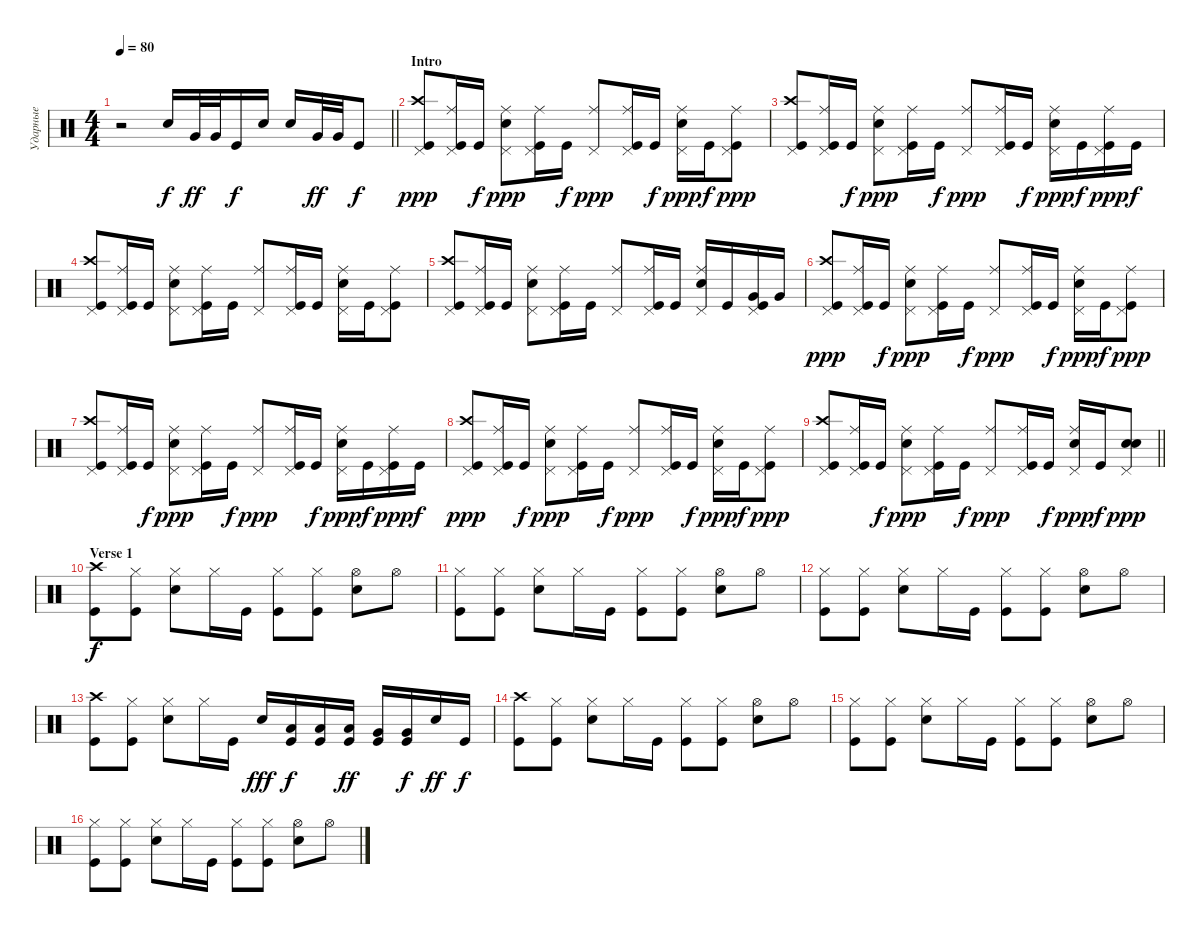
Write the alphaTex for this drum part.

\track ("Ударные" "Ударные") {instrument percussion}
\staff {score}
\articulation defaults
\ts (4 4)
\tempo 80
\clef neutral
\barLineRight lightlight
\ks aminor
r.2{dy f} "Snare (hit) 2".16{bd 120} "Very Low Tom (hit)".32{dy ff} "Very Low Tom (hit)".32 "Kick (hit)".16{dy f} "Snare (hit) 2".16 "Snare (hit) 2".16 "Very Low Tom (hit)".32{dy ff} "Very Low Tom (hit)".32 "Kick (hit)".8{dy f} |
\section ("" "Intro")
("Kick (hit)" "Crash high (hit)" "Pedal Hi-Hat (hit)").8{dy ppp} ("Kick (hit)" "Ride (middle)" "Pedal Hi-Hat (hit)").16 "Kick (hit)".16{dy f} ("Snare (hit) 2" "Ride (middle)" "Pedal Hi-Hat (hit)").8{dy ppp} ("Kick (hit)" "Ride (middle)" "Pedal Hi-Hat (hit)").16 "Kick (hit)".16{dy f} ("Ride (middle)" "Pedal Hi-Hat (hit)").8{dy ppp} ("Kick (hit)" "Ride (middle)" "Pedal Hi-Hat (hit)").16 "Kick (hit)".16{dy f} ("Snare (hit) 2" "Ride (middle)" "Pedal Hi-Hat (hit)").16{dy ppp} "Kick (hit)".16{dy f} ("Kick (hit)" "Ride (middle)" "Pedal Hi-Hat (hit)").8{dy ppp} |
("Kick (hit)" "Crash high (hit)" "Pedal Hi-Hat (hit)").8 ("Kick (hit)" "Ride (middle)" "Pedal Hi-Hat (hit)").16 "Kick (hit)".16{dy f} ("Snare (hit) 2" "Ride (middle)" "Pedal Hi-Hat (hit)").8{dy ppp} ("Kick (hit)" "Ride (middle)" "Pedal Hi-Hat (hit)").16 "Kick (hit)".16{dy f} ("Ride (middle)" "Pedal Hi-Hat (hit)").8{dy ppp} ("Kick (hit)" "Ride (middle)" "Pedal Hi-Hat (hit)").16 "Kick (hit)".16{dy f} ("Snare (hit) 2" "Ride (middle)" "Pedal Hi-Hat (hit)").16{dy ppp} "Kick (hit)".16{dy f} ("Kick (hit)" "Ride (middle)" "Pedal Hi-Hat (hit)").16{dy ppp} "Kick (hit)".16{dy f} |
("Kick (hit)" "Crash high (hit)" "Pedal Hi-Hat (hit)").8 ("Kick (hit)" "Ride (middle)" "Pedal Hi-Hat (hit)").16 "Kick (hit)".16 ("Snare (hit) 2" "Ride (middle)" "Pedal Hi-Hat (hit)").8 ("Kick (hit)" "Ride (middle)" "Pedal Hi-Hat (hit)").16 "Kick (hit)".16 ("Ride (middle)" "Pedal Hi-Hat (hit)").8 ("Kick (hit)" "Ride (middle)" "Pedal Hi-Hat (hit)").16 "Kick (hit)".16 ("Snare (hit) 2" "Ride (middle)" "Pedal Hi-Hat (hit)").16 "Kick (hit)".16 ("Kick (hit)" "Ride (middle)" "Pedal Hi-Hat (hit)").8 |
("Kick (hit)" "Crash high (hit)" "Pedal Hi-Hat (hit)").8 ("Kick (hit)" "Ride (middle)" "Pedal Hi-Hat (hit)").16 "Kick (hit)".16 ("Snare (hit) 2" "Ride (middle)" "Pedal Hi-Hat (hit)").8 ("Kick (hit)" "Ride (middle)" "Pedal Hi-Hat (hit)").16 "Kick (hit)".16 ("Ride (middle)" "Pedal Hi-Hat (hit)").8 ("Kick (hit)" "Ride (middle)" "Pedal Hi-Hat (hit)").16 "Kick (hit)".16 ("Snare (hit) 2" "Ride (middle)" "Pedal Hi-Hat (hit)").16 "Kick (hit)".16 ("Very Low Tom (hit)" "Kick (hit)" "Pedal Hi-Hat (hit)").16 "Very Low Tom (hit)".16 |
("Kick (hit)" "Crash high (hit)" "Pedal Hi-Hat (hit)").8{dy ppp} ("Kick (hit)" "Ride (middle)" "Pedal Hi-Hat (hit)").16 "Kick (hit)".16{dy f} ("Snare (hit) 2" "Ride (middle)" "Pedal Hi-Hat (hit)").8{dy ppp} ("Kick (hit)" "Ride (middle)" "Pedal Hi-Hat (hit)").16 "Kick (hit)".16{dy f} ("Ride (middle)" "Pedal Hi-Hat (hit)").8{dy ppp} ("Kick (hit)" "Ride (middle)" "Pedal Hi-Hat (hit)").16 "Kick (hit)".16{dy f} ("Snare (hit) 2" "Ride (middle)" "Pedal Hi-Hat (hit)").16{dy ppp} "Kick (hit)".16{dy f} ("Kick (hit)" "Ride (middle)" "Pedal Hi-Hat (hit)").8{dy ppp} |
("Kick (hit)" "Crash high (hit)" "Pedal Hi-Hat (hit)").8 ("Kick (hit)" "Ride (middle)" "Pedal Hi-Hat (hit)").16 "Kick (hit)".16{dy f} ("Snare (hit) 2" "Ride (middle)" "Pedal Hi-Hat (hit)").8{dy ppp} ("Kick (hit)" "Ride (middle)" "Pedal Hi-Hat (hit)").16 "Kick (hit)".16{dy f} ("Ride (middle)" "Pedal Hi-Hat (hit)").8{dy ppp} ("Kick (hit)" "Ride (middle)" "Pedal Hi-Hat (hit)").16 "Kick (hit)".16{dy f} ("Snare (hit) 2" "Ride (middle)" "Pedal Hi-Hat (hit)").16{dy ppp} "Kick (hit)".16{dy f} ("Kick (hit)" "Ride (middle)" "Pedal Hi-Hat (hit)").16{dy ppp} "Kick (hit)".16{dy f} |
("Kick (hit)" "Crash high (hit)" "Pedal Hi-Hat (hit)").8{dy ppp} ("Kick (hit)" "Ride (middle)" "Pedal Hi-Hat (hit)").16 "Kick (hit)".16{dy f} ("Snare (hit) 2" "Ride (middle)" "Pedal Hi-Hat (hit)").8{dy ppp} ("Kick (hit)" "Ride (middle)" "Pedal Hi-Hat (hit)").16 "Kick (hit)".16{dy f} ("Ride (middle)" "Pedal Hi-Hat (hit)").8{dy ppp} ("Kick (hit)" "Ride (middle)" "Pedal Hi-Hat (hit)").16 "Kick (hit)".16{dy f} ("Snare (hit) 2" "Ride (middle)" "Pedal Hi-Hat (hit)").16{dy ppp} "Kick (hit)".16{dy f} ("Kick (hit)" "Ride (middle)" "Pedal Hi-Hat (hit)").8{dy ppp} |
\barLineRight lightlight
("Kick (hit)" "Crash high (hit)" "Pedal Hi-Hat (hit)").8 ("Kick (hit)" "Ride (middle)" "Pedal Hi-Hat (hit)").16 "Kick (hit)".16{dy f} ("Snare (hit) 2" "Ride (middle)" "Pedal Hi-Hat (hit)").8{dy ppp} ("Kick (hit)" "Ride (middle)" "Pedal Hi-Hat (hit)").16 "Kick (hit)".16{dy f} ("Ride (middle)" "Pedal Hi-Hat (hit)").8{dy ppp} ("Kick (hit)" "Ride (middle)" "Pedal Hi-Hat (hit)").16 "Kick (hit)".16{dy f} ("Snare (hit) 2" "Ride (middle)" "Pedal Hi-Hat (hit)").16{dy ppp} "Kick (hit)".16{dy f} ("Snare (hit) 2" "Snare (hit) 2" "Pedal Hi-Hat (hit)").8{bd 120 dy ppp} |
\section ("" "Verse 1")
("Kick (hit)" "Crash high (hit)").8{dy f} ("Kick (hit)" "Hi-Hat (closed)").8 ("Hi-Hat (closed)" "Snare (hit) 2").8 "Hi-Hat (closed)".16 "Kick (hit)".16 ("Kick (hit)" "Hi-Hat (closed)").8 ("Kick (hit)" "Hi-Hat (closed)").8 ("Snare (hit) 2" "Hi-Hat (open)").8 "Hi-Hat (open)".8 |
("Kick (hit)" "Hi-Hat (closed)").8 ("Kick (hit)" "Hi-Hat (closed)").8 ("Hi-Hat (closed)" "Snare (hit) 2").8 "Hi-Hat (closed)".16 "Kick (hit)".16 ("Kick (hit)" "Hi-Hat (closed)").8 ("Kick (hit)" "Hi-Hat (closed)").8 ("Snare (hit) 2" "Hi-Hat (open)").8 "Hi-Hat (open)".8 |
("Kick (hit)" "Hi-Hat (closed)").8 ("Kick (hit)" "Hi-Hat (closed)").8 ("Hi-Hat (closed)" "Snare (hit) 2").8 "Hi-Hat (closed)".16 "Kick (hit)".16 ("Kick (hit)" "Hi-Hat (closed)").8 ("Kick (hit)" "Hi-Hat (closed)").8 ("Snare (hit) 2" "Hi-Hat (open)").8 "Hi-Hat (open)".8 |
("Kick (hit)" "Crash high (hit)").8 ("Kick (hit)" "Hi-Hat (closed)").8 ("Hi-Hat (closed)" "Snare (hit) 2").8 "Hi-Hat (closed)".16 "Kick (hit)".16 "Snare (hit) 2".16{bd 480 dy fff} ("Kick (hit)" "Low Tom (hit)").16{dy f} ("Kick (hit)" "Low Tom (hit)").16 ("Kick (hit)" "Low Tom (hit)").16{dy ff} ("Very Low Tom (hit)" "Kick (hit)").16 ("Kick (hit)" "Very Low Tom (hit)").16{dy f} "Snare (hit) 2".16{bd 480 dy ff} "Kick (hit)".16{dy f} |
("Kick (hit)" "Crash high (hit)").8 ("Kick (hit)" "Hi-Hat (closed)").8 ("Hi-Hat (closed)" "Snare (hit) 2").8 "Hi-Hat (closed)".16 "Kick (hit)".16 ("Kick (hit)" "Hi-Hat (closed)").8 ("Kick (hit)" "Hi-Hat (closed)").8 ("Snare (hit) 2" "Hi-Hat (open)").8 "Hi-Hat (open)".8 |
("Kick (hit)" "Hi-Hat (closed)").8 ("Kick (hit)" "Hi-Hat (closed)").8 ("Hi-Hat (closed)" "Snare (hit) 2").8 "Hi-Hat (closed)".16 "Kick (hit)".16 ("Kick (hit)" "Hi-Hat (closed)").8 ("Kick (hit)" "Hi-Hat (closed)").8 ("Snare (hit) 2" "Hi-Hat (open)").8 "Hi-Hat (open)".8 |
("Kick (hit)" "Hi-Hat (closed)").8 ("Kick (hit)" "Hi-Hat (closed)").8 ("Hi-Hat (closed)" "Snare (hit) 2").8 "Hi-Hat (closed)".16 "Kick (hit)".16 ("Kick (hit)" "Hi-Hat (closed)").8 ("Kick (hit)" "Hi-Hat (closed)").8 ("Snare (hit) 2" "Hi-Hat (open)").8 "Hi-Hat (open)".8
